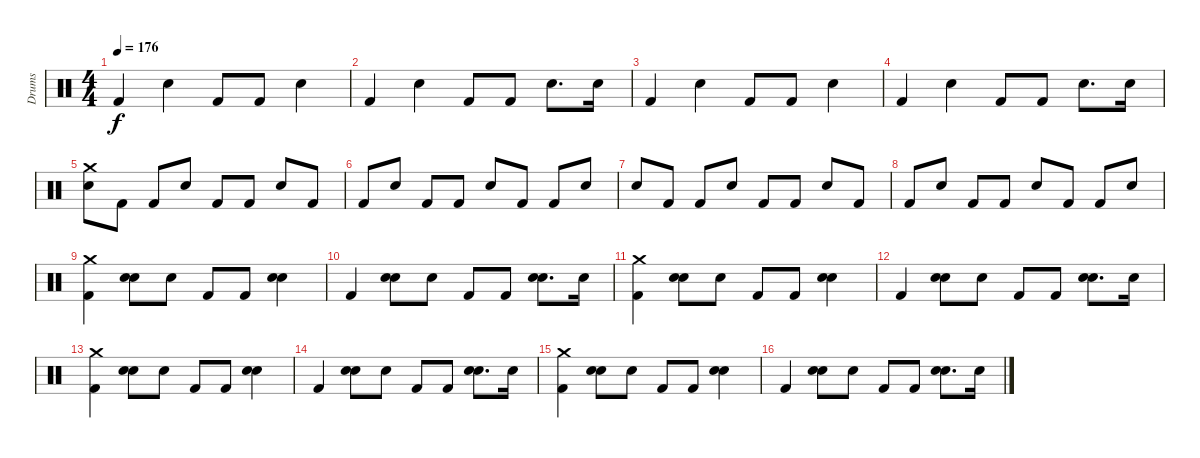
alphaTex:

\track ("Drums" "Drums") {instrument percussion}
\staff {score}
\articulation defaults
\ts (4 4)
\tempo 176
\clef neutral
\ks c "Kick (hit) 2".4{dy f} "Snare (hit) 2".4 "Kick (hit) 2".8 "Kick (hit) 2".8 "Snare (hit) 2".4
|
"Kick (hit) 2".4 "Snare (hit) 2".4 "Kick (hit) 2".8 "Kick (hit) 2".8 "Snare (hit) 2".8{d} "Snare (hit) 2".16 |
"Kick (hit) 2".4 "Snare (hit) 2".4 "Kick (hit) 2".8 "Kick (hit) 2".8 "Snare (hit) 2".4 |
"Kick (hit) 2".4 "Snare (hit) 2".4 "Kick (hit) 2".8 "Kick (hit) 2".8 "Snare (hit) 2".8{d} "Snare (hit) 2".16 |
("Snare (hit) 2" "Crash medium (hit)").8 "Kick (hit) 2".8 "Kick (hit) 2".8 "Snare (hit) 2".8 "Kick (hit) 2".8 "Kick (hit) 2".8 "Snare (hit) 2".8 "Kick (hit) 2".8 |
"Kick (hit) 2".8 "Snare (hit) 2".8 "Kick (hit) 2".8 "Kick (hit) 2".8 "Snare (hit) 2".8 "Kick (hit) 2".8 "Kick (hit) 2".8 "Snare (hit) 2".8 |
"Snare (hit) 2".8 "Kick (hit) 2".8 "Kick (hit) 2".8 "Snare (hit) 2".8 "Kick (hit) 2".8 "Kick (hit) 2".8 "Snare (hit) 2".8 "Kick (hit) 2".8 |
"Kick (hit) 2".8 "Snare (hit) 2".8 "Kick (hit) 2".8 "Kick (hit) 2".8 "Snare (hit) 2".8 "Kick (hit) 2".8 "Kick (hit) 2".8 "Snare (hit) 2".8 |
("Kick (hit) 2" "Crash medium (hit)").4{volume 15} ("Snare (hit) 2" "Hand Clap (hit)").8 "Hand Clap (hit)".8 "Kick (hit) 2".8 "Kick (hit) 2".8 ("Snare (hit) 2" "Hand Clap (hit)").4 |
"Kick (hit) 2".4 ("Snare (hit) 2" "Hand Clap (hit)").8 "Hand Clap (hit)".8 "Kick (hit) 2".8 "Kick (hit) 2".8 ("Snare (hit) 2" "Hand Clap (hit)").8{d} "Snare (hit) 2".16 |
("Kick (hit) 2" "Crash medium (hit)").4{volume 15} ("Snare (hit) 2" "Hand Clap (hit)").8 "Hand Clap (hit)".8 "Kick (hit) 2".8 "Kick (hit) 2".8 ("Snare (hit) 2" "Hand Clap (hit)").4 |
"Kick (hit) 2".4 ("Snare (hit) 2" "Hand Clap (hit)").8 "Hand Clap (hit)".8 "Kick (hit) 2".8 "Kick (hit) 2".8 ("Snare (hit) 2" "Hand Clap (hit)").8{d} "Snare (hit) 2".16 |
("Kick (hit) 2" "Crash medium (hit)").4{volume 15} ("Snare (hit) 2" "Hand Clap (hit)").8 "Hand Clap (hit)".8 "Kick (hit) 2".8 "Kick (hit) 2".8 ("Snare (hit) 2" "Hand Clap (hit)").4 |
"Kick (hit) 2".4 ("Snare (hit) 2" "Hand Clap (hit)").8 "Hand Clap (hit)".8 "Kick (hit) 2".8 "Kick (hit) 2".8 ("Snare (hit) 2" "Hand Clap (hit)").8{d} "Snare (hit) 2".16 |
("Kick (hit) 2" "Crash medium (hit)").4{volume 15} ("Snare (hit) 2" "Hand Clap (hit)").8 "Hand Clap (hit)".8 "Kick (hit) 2".8 "Kick (hit) 2".8 ("Snare (hit) 2" "Hand Clap (hit)").4 |
"Kick (hit) 2".4 ("Snare (hit) 2" "Hand Clap (hit)").8 "Hand Clap (hit)".8 "Kick (hit) 2".8 "Kick (hit) 2".8 ("Snare (hit) 2" "Hand Clap (hit)").8{d} "Snare (hit) 2".16
